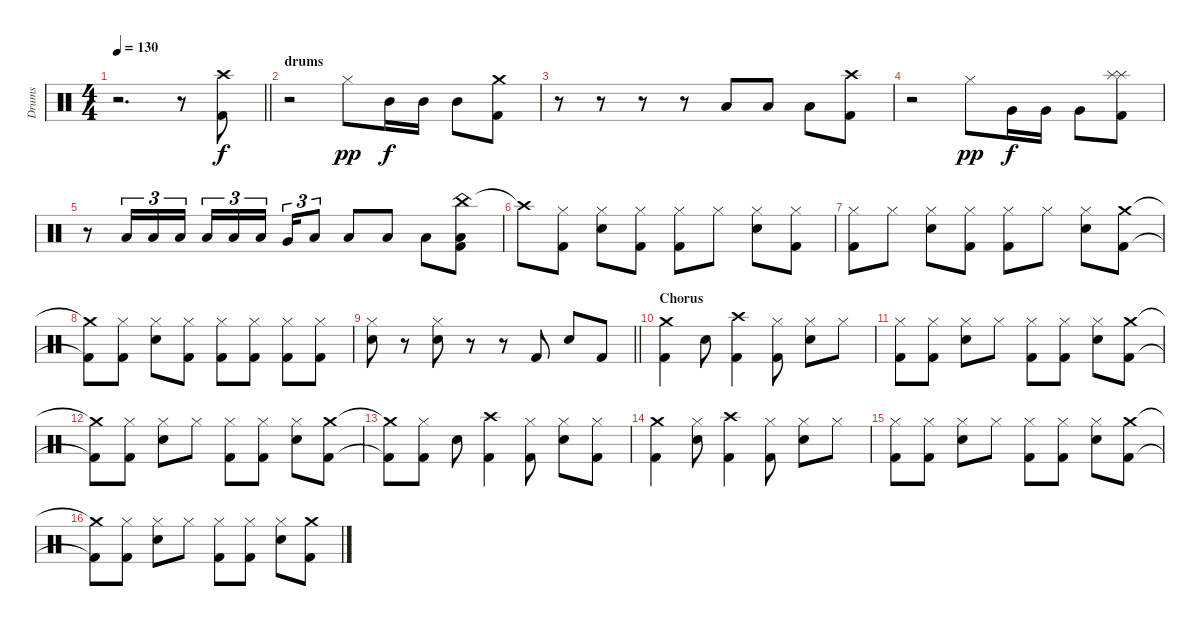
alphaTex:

\track ("Drums" "Drums") {instrument percussion}
\staff {score}
\articulation defaults
\ts (4 4)
\tempo 130
\clef neutral
\barLineRight lightlight
\ks c
r.2{d dy f} r.8 ("Crash high (hit)" "Kick (hit) 2").8 |
\section ("" "drums")
r.2 "Hi-Hat (closed)".8{dy pp} "Mid Tom (hit)".16{dy f} "Mid Tom (hit)".16 "Mid Tom (hit)".8 ("Crash medium (hit)" "Kick (hit) 2").8 |
r.8 r.8 r.8 r.8 "Low Tom (hit)".8 "Low Tom (hit)".8 "Low Tom (hit)".8 ("Crash high (hit)" "Kick (hit) 2").8 |
r.2 "Hi-Hat (closed)".8{dy pp} "Very Low Tom (hit)".16{dy f} "Very Low Tom (hit)".16 "Very Low Tom (hit)".8 ("Splash (hit)" "Splash (hit)" "Kick (hit) 2").8 |
r.8 "Low Tom (hit)".16{tu (3 2)} "Low Tom (hit)".16{tu (3 2)} "Low Tom (hit)".16{tu (3 2)} "Low Tom (hit)".16{tu (3 2)} "Low Tom (hit)".16{tu (3 2)} "Low Tom (hit)".16{tu (3 2) beam splitsecondary} "Very Low Tom (hit)".16{tu (3 2)} "Low Tom (hit)".8{tu (3 2)} "Low Floor Tom (hit)".8 "Low Tom (hit)".8 "Low Tom (hit)".8 ("China (hit)" "Low Tom (hit)" "Kick (hit) 2").8 |
"Crash high (hit)"{t}.8 ("Hi-Hat (closed)" "Kick (hit) 2").8 ("Hi-Hat (closed)" "Electric Snare (hit)").8 ("Hi-Hat (closed)" "Kick (hit) 2").8 ("Hi-Hat (closed)" "Kick (hit) 2").8 "Hi-Hat (closed)".8 ("Hi-Hat (closed)" "Electric Snare (hit)").8 ("Hi-Hat (closed)" "Kick (hit) 2").8 |
("Hi-Hat (closed)" "Kick (hit) 2").8 "Hi-Hat (closed)".8 ("Hi-Hat (closed)" "Electric Snare (hit)").8 ("Hi-Hat (closed)" "Kick (hit) 2").8 ("Hi-Hat (closed)" "Kick (hit) 2").8 "Hi-Hat (closed)".8 ("Hi-Hat (closed)" "Electric Snare (hit)").8 ("Crash medium (hit)" "Kick (hit) 2").8 |
("Crash medium (hit)"{t} "Kick (hit) 2"{t}).8 ("Hi-Hat (closed)" "Kick (hit) 2").8 ("Hi-Hat (closed)" "Electric Snare (hit)").8 ("Hi-Hat (closed)" "Kick (hit) 2").8 ("Hi-Hat (closed)" "Kick (hit) 2").8 ("Hi-Hat (closed)" "Kick (hit) 2").8 ("Hi-Hat (closed)" "Kick (hit) 2").8 ("Hi-Hat (closed)" "Kick (hit) 2").8 |
\barLineRight lightlight
("Hi-Hat (closed)" "Electric Snare (hit)").8 r.8 ("Hi-Hat (closed)" "Electric Snare (hit)").8 r.8 r.8 "Kick (hit) 2".8 "Electric Snare (hit)".8 "Kick (hit) 2".8 |
\section ("" "Chorus")
("Crash medium (hit)" "Kick (hit) 2").4 "Electric Snare (hit)".8 ("Crash high (hit)" "Kick (hit) 2").4 ("Hi-Hat (closed)" "Kick (hit) 2").8 ("Hi-Hat (closed)" "Electric Snare (hit)").8 "Hi-Hat (closed)".8 |
("Hi-Hat (closed)" "Kick (hit) 2").8 ("Hi-Hat (closed)" "Kick (hit) 2").8 ("Hi-Hat (closed)" "Electric Snare (hit)").8 "Hi-Hat (closed)".8 ("Hi-Hat (closed)" "Kick (hit) 2").8 ("Hi-Hat (closed)" "Kick (hit) 2").8 ("Hi-Hat (closed)" "Electric Snare (hit)").8 ("Crash medium (hit)" "Kick (hit) 2").8 |
("Crash medium (hit)"{t} "Kick (hit) 2"{t}).8 ("Hi-Hat (closed)" "Kick (hit) 2").8 ("Hi-Hat (closed)" "Electric Snare (hit)").8 "Hi-Hat (closed)".8 ("Hi-Hat (closed)" "Kick (hit) 2").8 ("Hi-Hat (closed)" "Kick (hit) 2").8 ("Hi-Hat (closed)" "Electric Snare (hit)").8 ("Crash medium (hit)" "Kick (hit) 2").8 |
("Crash medium (hit)"{t} "Kick (hit) 2"{t}).8 ("Hi-Hat (closed)" "Kick (hit) 2").8 "Electric Snare (hit)".8 ("Crash high (hit)" "Kick (hit) 2").4 ("Hi-Hat (closed)" "Kick (hit) 2").8 ("Hi-Hat (closed)" "Electric Snare (hit)").8 ("Hi-Hat (closed)" "Kick (hit) 2").8 |
("Crash medium (hit)" "Kick (hit) 2").4 ("Hi-Hat (closed)" "Electric Snare (hit)").8 ("Crash high (hit)" "Kick (hit) 2").4 ("Hi-Hat (closed)" "Kick (hit) 2").8 ("Hi-Hat (closed)" "Electric Snare (hit)").8 "Hi-Hat (closed)".8 |
("Hi-Hat (closed)" "Kick (hit) 2").8 ("Hi-Hat (closed)" "Kick (hit) 2").8 ("Hi-Hat (closed)" "Electric Snare (hit)").8 "Hi-Hat (closed)".8 ("Hi-Hat (closed)" "Kick (hit) 2").8 ("Hi-Hat (closed)" "Kick (hit) 2").8 ("Hi-Hat (closed)" "Electric Snare (hit)").8 ("Crash medium (hit)" "Kick (hit) 2").8 |
("Crash medium (hit)"{t} "Kick (hit) 2"{t}).8 ("Hi-Hat (closed)" "Kick (hit) 2").8 ("Hi-Hat (closed)" "Electric Snare (hit)").8 "Hi-Hat (closed)".8 ("Hi-Hat (closed)" "Kick (hit) 2").8 ("Hi-Hat (closed)" "Kick (hit) 2").8 ("Hi-Hat (closed)" "Electric Snare (hit)").8 ("Crash medium (hit)" "Kick (hit) 2").8
